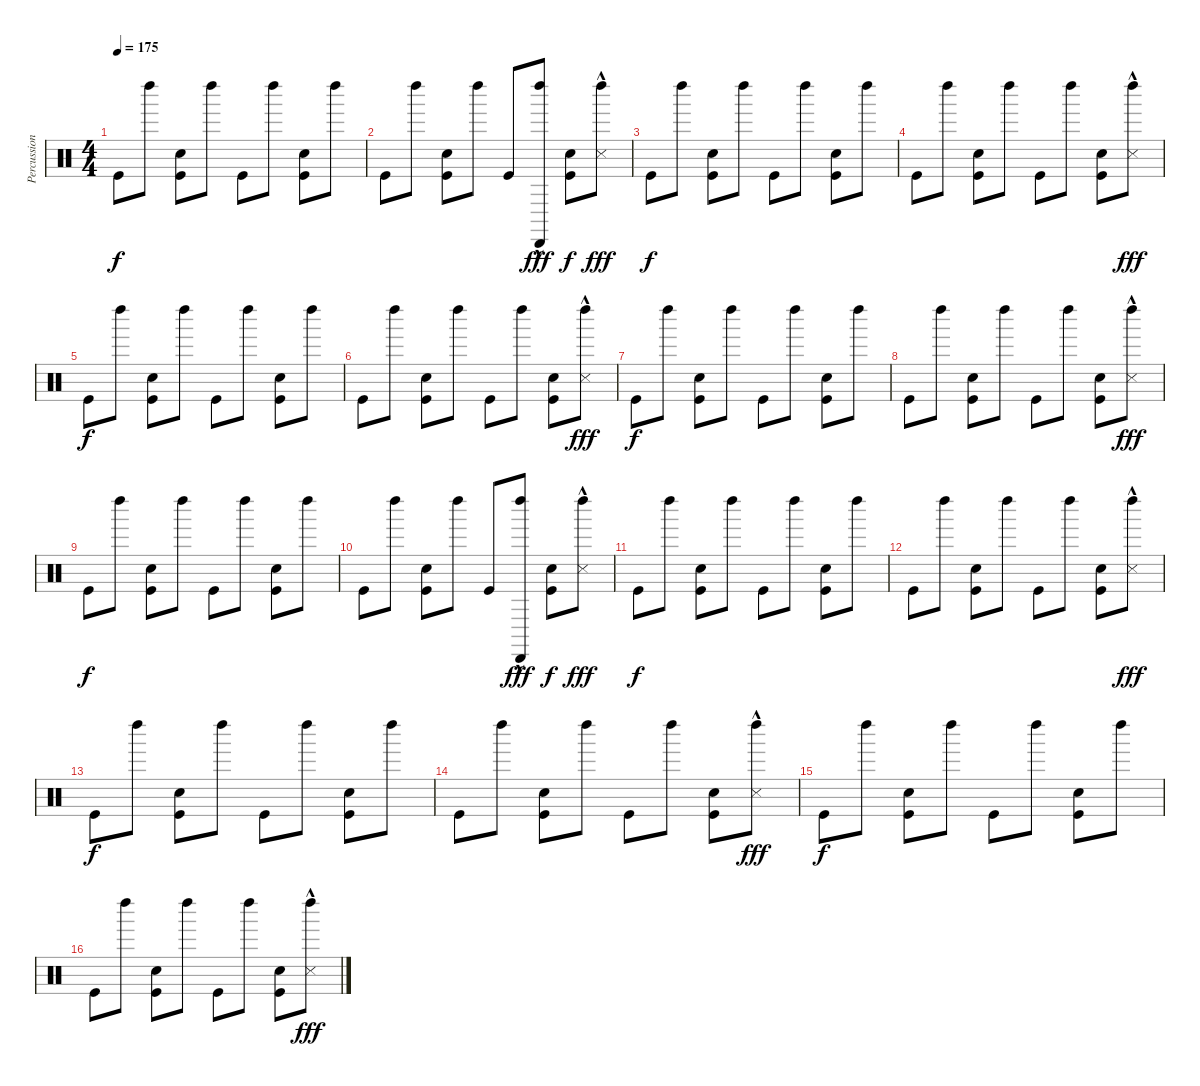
\track ("Percussion" "Percussion") {instrument percussion}
\staff {score}
\articulation defaults
\ts (4 4)
\tempo 175
\clef neutral
\ks c "Kick (hit)".8{dy f} "Left Maraca (hit)".8
("Kick (hit)" "Hand Clap (hit)").8 "Left Maraca (hit)".8 "Kick (hit)".8 "Left Maraca (hit)".8 ("Kick (hit)" "Hand Clap (hit)").8 "Left Maraca (hit)".8 |
"Kick (hit)".8 "Left Maraca (hit)".8 ("Kick (hit)" "Hand Clap (hit)").8 "Left Maraca (hit)".8 "Kick (hit)".8 ("Left Maraca (hit)" "Cabasa (hit)"{hac}).8{dy fff} ("Kick (hit)" "Hand Clap (hit)").8{dy f} ("Left Maraca (hit)" "Metronome (hit)"{hac}).8{dy fff} |
"Kick (hit)".8{dy f} "Left Maraca (hit)".8 ("Kick (hit)" "Hand Clap (hit)").8 "Left Maraca (hit)".8 "Kick (hit)".8 "Left Maraca (hit)".8 ("Kick (hit)" "Hand Clap (hit)").8 "Left Maraca (hit)".8 |
"Kick (hit)".8 "Left Maraca (hit)".8 ("Kick (hit)" "Hand Clap (hit)").8 "Left Maraca (hit)".8 "Kick (hit)".8 "Left Maraca (hit)".8 ("Kick (hit)" "Hand Clap (hit)").8 ("Left Maraca (hit)" "Metronome (hit)"{hac}).8{dy fff} |
"Kick (hit)".8{dy f} "Left Maraca (hit)".8 ("Kick (hit)" "Hand Clap (hit)").8 "Left Maraca (hit)".8 "Kick (hit)".8 "Left Maraca (hit)".8 ("Kick (hit)" "Hand Clap (hit)").8 "Left Maraca (hit)".8 |
"Kick (hit)".8 "Left Maraca (hit)".8 ("Kick (hit)" "Hand Clap (hit)").8 "Left Maraca (hit)".8 "Kick (hit)".8 "Left Maraca (hit)".8 ("Kick (hit)" "Hand Clap (hit)").8 ("Left Maraca (hit)" "Metronome (hit)"{hac}).8{dy fff} |
"Kick (hit)".8{dy f} "Left Maraca (hit)".8 ("Kick (hit)" "Hand Clap (hit)").8 "Left Maraca (hit)".8 "Kick (hit)".8 "Left Maraca (hit)".8 ("Kick (hit)" "Hand Clap (hit)").8 "Left Maraca (hit)".8 |
"Kick (hit)".8 "Left Maraca (hit)".8 ("Kick (hit)" "Hand Clap (hit)").8 "Left Maraca (hit)".8 "Kick (hit)".8 "Left Maraca (hit)".8 ("Kick (hit)" "Hand Clap (hit)").8 ("Left Maraca (hit)" "Metronome (hit)"{hac}).8{dy fff} |
"Kick (hit)".8{dy f} "Left Maraca (hit)".8 ("Kick (hit)" "Hand Clap (hit)").8 "Left Maraca (hit)".8 "Kick (hit)".8 "Left Maraca (hit)".8 ("Kick (hit)" "Hand Clap (hit)").8 "Left Maraca (hit)".8 |
"Kick (hit)".8 "Left Maraca (hit)".8 ("Kick (hit)" "Hand Clap (hit)").8 "Left Maraca (hit)".8 "Kick (hit)".8 ("Left Maraca (hit)" "Cabasa (hit)"{hac}).8{dy fff} ("Kick (hit)" "Hand Clap (hit)").8{dy f} ("Left Maraca (hit)" "Metronome (hit)"{hac}).8{dy fff} |
"Kick (hit)".8{dy f} "Left Maraca (hit)".8 ("Kick (hit)" "Hand Clap (hit)").8 "Left Maraca (hit)".8 "Kick (hit)".8 "Left Maraca (hit)".8 ("Kick (hit)" "Hand Clap (hit)").8 "Left Maraca (hit)".8 |
"Kick (hit)".8 "Left Maraca (hit)".8 ("Kick (hit)" "Hand Clap (hit)").8 "Left Maraca (hit)".8 "Kick (hit)".8 "Left Maraca (hit)".8 ("Kick (hit)" "Hand Clap (hit)").8 ("Left Maraca (hit)" "Metronome (hit)"{hac}).8{dy fff} |
"Kick (hit)".8{dy f} "Left Maraca (hit)".8 ("Kick (hit)" "Hand Clap (hit)").8 "Left Maraca (hit)".8 "Kick (hit)".8 "Left Maraca (hit)".8 ("Kick (hit)" "Hand Clap (hit)").8 "Left Maraca (hit)".8 |
"Kick (hit)".8 "Left Maraca (hit)".8 ("Kick (hit)" "Hand Clap (hit)").8 "Left Maraca (hit)".8 "Kick (hit)".8 "Left Maraca (hit)".8 ("Kick (hit)" "Hand Clap (hit)").8 ("Left Maraca (hit)" "Metronome (hit)"{hac}).8{dy fff} |
"Kick (hit)".8{dy f} "Left Maraca (hit)".8 ("Kick (hit)" "Hand Clap (hit)").8 "Left Maraca (hit)".8 "Kick (hit)".8 "Left Maraca (hit)".8 ("Kick (hit)" "Hand Clap (hit)").8 "Left Maraca (hit)".8 |
"Kick (hit)".8 "Left Maraca (hit)".8 ("Kick (hit)" "Hand Clap (hit)").8 "Left Maraca (hit)".8 "Kick (hit)".8 "Left Maraca (hit)".8 ("Kick (hit)" "Hand Clap (hit)").8 ("Left Maraca (hit)" "Metronome (hit)"{hac}).8{dy fff}
